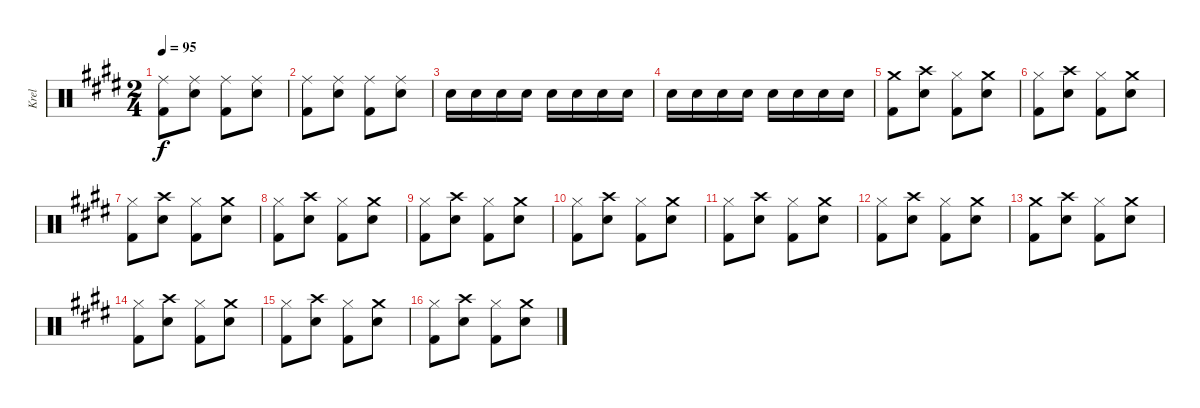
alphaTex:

\track ("Krel" "Krel") {instrument percussion}
\staff {score}
\articulation defaults
\ts (2 4)
\tempo 95
\clef neutral
\ks e
("Ride (middle)" "Kick (hit) 2").8{dy f} ("Ride (middle)" "Snare (hit) 2").8 ("Ride (middle)" "Kick (hit) 2").8 ("Ride (middle)" "Snare (hit) 2").8 |
("Ride (middle)" "Kick (hit) 2").8 ("Ride (middle)" "Snare (hit) 2").8 ("Ride (middle)" "Kick (hit) 2").8 ("Ride (middle)" "Snare (hit) 2").8 |
"Snare (hit) 2".16 "Snare (hit) 2".16 "Snare (hit) 2".16 "Snare (hit) 2".16 "Snare (hit) 2".16 "Snare (hit) 2".16 "Snare (hit) 2".16 "Snare (hit) 2".16 |
"Snare (hit) 2".16 "Snare (hit) 2".16 "Snare (hit) 2".16 "Snare (hit) 2".16 "Snare (hit) 2".16 "Snare (hit) 2".16 "Snare (hit) 2".16 "Snare (hit) 2".16 |
("Crash medium (hit)" "Kick (hit) 2").8{volume 13} ("Crash high (hit)" "Snare (hit) 2").8 ("Hi-Hat (closed)" "Kick (hit) 2").8 ("Crash medium (hit)" "Snare (hit) 2").8 |
("Hi-Hat (closed)" "Kick (hit) 2").8 ("Crash high (hit)" "Snare (hit) 2").8 ("Hi-Hat (closed)" "Kick (hit) 2").8 ("Crash medium (hit)" "Snare (hit) 2").8 |
("Hi-Hat (closed)" "Kick (hit) 2").8 ("Crash high (hit)" "Snare (hit) 2").8 ("Hi-Hat (closed)" "Kick (hit) 2").8 ("Crash medium (hit)" "Snare (hit) 2").8 |
("Hi-Hat (closed)" "Kick (hit) 2").8 ("Crash high (hit)" "Snare (hit) 2").8 ("Hi-Hat (closed)" "Kick (hit) 2").8 ("Crash medium (hit)" "Snare (hit) 2").8 |
("Hi-Hat (closed)" "Kick (hit) 2").8 ("Crash high (hit)" "Snare (hit) 2").8 ("Hi-Hat (closed)" "Kick (hit) 2").8 ("Crash medium (hit)" "Snare (hit) 2").8 |
("Hi-Hat (closed)" "Kick (hit) 2").8 ("Crash high (hit)" "Snare (hit) 2").8 ("Hi-Hat (closed)" "Kick (hit) 2").8 ("Crash medium (hit)" "Snare (hit) 2").8 |
("Hi-Hat (closed)" "Kick (hit) 2").8 ("Crash high (hit)" "Snare (hit) 2").8 ("Hi-Hat (closed)" "Kick (hit) 2").8 ("Crash medium (hit)" "Snare (hit) 2").8 |
("Hi-Hat (closed)" "Kick (hit) 2").8 ("Crash high (hit)" "Snare (hit) 2").8 ("Hi-Hat (closed)" "Kick (hit) 2").8 ("Crash medium (hit)" "Snare (hit) 2").8 |
("Crash medium (hit)" "Kick (hit) 2").8 ("Crash high (hit)" "Snare (hit) 2").8 ("Hi-Hat (closed)" "Kick (hit) 2").8 ("Crash medium (hit)" "Snare (hit) 2").8 |
("Hi-Hat (closed)" "Kick (hit) 2").8 ("Crash high (hit)" "Snare (hit) 2").8 ("Hi-Hat (closed)" "Kick (hit) 2").8 ("Crash medium (hit)" "Snare (hit) 2").8 |
("Hi-Hat (closed)" "Kick (hit) 2").8 ("Crash high (hit)" "Snare (hit) 2").8 ("Hi-Hat (closed)" "Kick (hit) 2").8 ("Crash medium (hit)" "Snare (hit) 2").8 |
("Hi-Hat (closed)" "Kick (hit) 2").8 ("Crash high (hit)" "Snare (hit) 2").8 ("Hi-Hat (closed)" "Kick (hit) 2").8 ("Crash medium (hit)" "Snare (hit) 2").8
